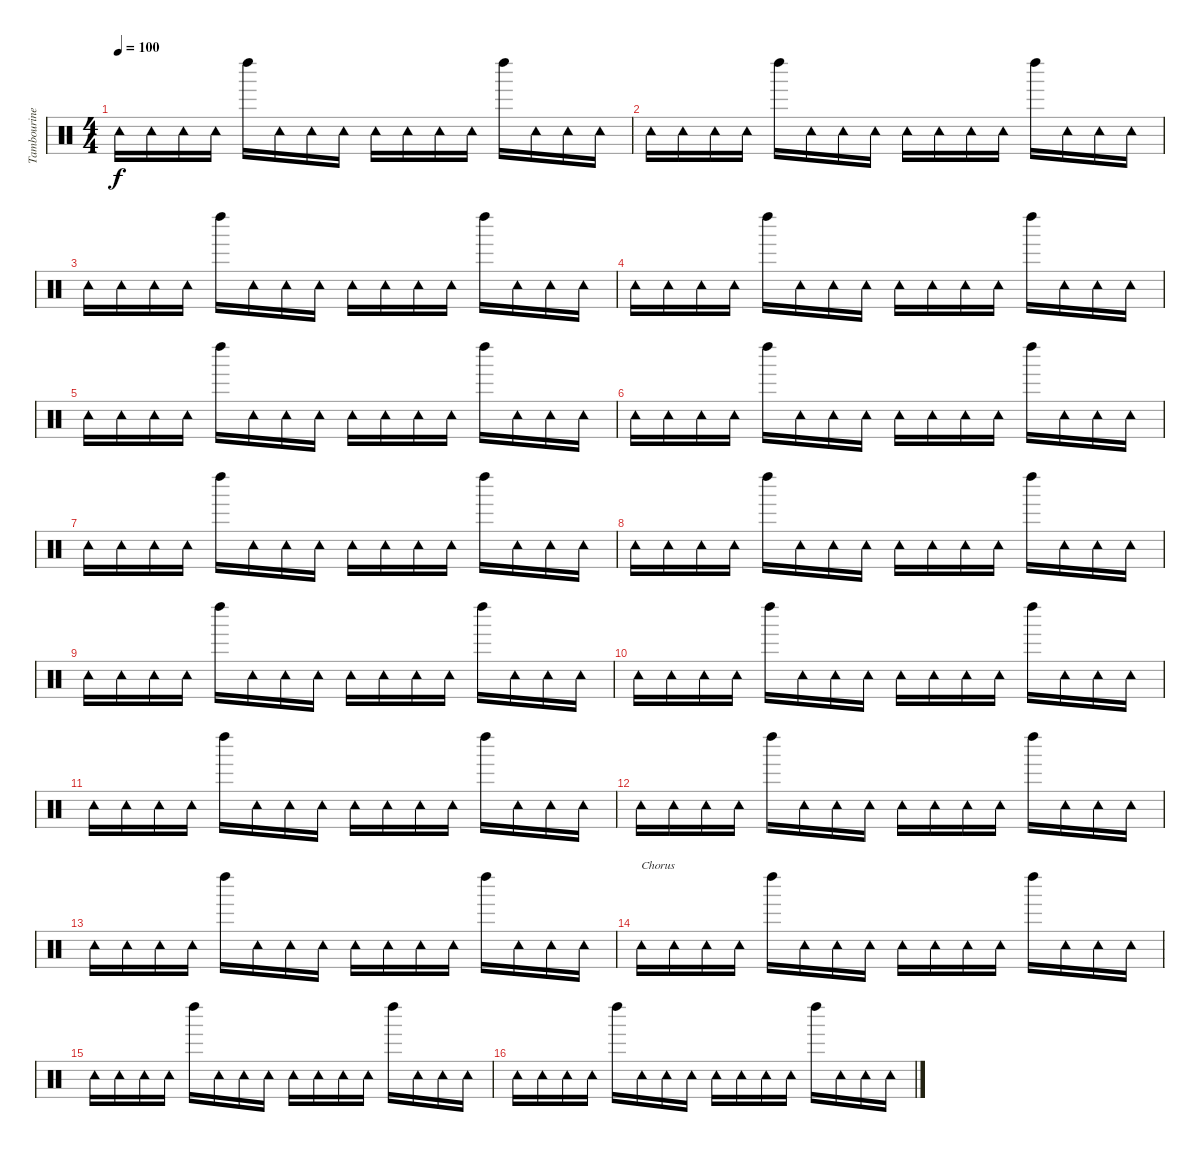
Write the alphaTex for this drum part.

\track ("Tambourine(Alan)" "Tambourine") {instrument percussion}
\staff {score}
\articulation defaults
\ts (4 4)
\tempo 100
\clef neutral
\ks c "Tambourine (hit)".16{dy f} "Tambourine (hit)".16 "Tambourine (hit)".16 "Tambourine (hit)".16 "Left Maraca (hit)".16 "Tambourine (hit)".16 "Tambourine (hit)".16 "Tambourine (hit)".16 "Tambourine (hit)".16 "Tambourine (hit)".16 "Tambourine (hit)".16 "Tambourine (hit)".16 "Left Maraca (hit)".16 "Tambourine (hit)".16 "Tambourine (hit)".16 "Tambourine (hit)".16
|
"Tambourine (hit)".16 "Tambourine (hit)".16 "Tambourine (hit)".16 "Tambourine (hit)".16 "Left Maraca (hit)".16 "Tambourine (hit)".16 "Tambourine (hit)".16 "Tambourine (hit)".16 "Tambourine (hit)".16 "Tambourine (hit)".16 "Tambourine (hit)".16 "Tambourine (hit)".16 "Left Maraca (hit)".16 "Tambourine (hit)".16 "Tambourine (hit)".16 "Tambourine (hit)".16 |
"Tambourine (hit)".16 "Tambourine (hit)".16 "Tambourine (hit)".16 "Tambourine (hit)".16 "Left Maraca (hit)".16 "Tambourine (hit)".16 "Tambourine (hit)".16 "Tambourine (hit)".16 "Tambourine (hit)".16 "Tambourine (hit)".16 "Tambourine (hit)".16 "Tambourine (hit)".16 "Left Maraca (hit)".16 "Tambourine (hit)".16 "Tambourine (hit)".16 "Tambourine (hit)".16 |
"Tambourine (hit)".16 "Tambourine (hit)".16 "Tambourine (hit)".16 "Tambourine (hit)".16 "Left Maraca (hit)".16 "Tambourine (hit)".16 "Tambourine (hit)".16 "Tambourine (hit)".16 "Tambourine (hit)".16 "Tambourine (hit)".16 "Tambourine (hit)".16 "Tambourine (hit)".16 "Left Maraca (hit)".16 "Tambourine (hit)".16 "Tambourine (hit)".16 "Tambourine (hit)".16 |
"Tambourine (hit)".16 "Tambourine (hit)".16 "Tambourine (hit)".16 "Tambourine (hit)".16 "Left Maraca (hit)".16 "Tambourine (hit)".16 "Tambourine (hit)".16 "Tambourine (hit)".16 "Tambourine (hit)".16 "Tambourine (hit)".16 "Tambourine (hit)".16 "Tambourine (hit)".16 "Left Maraca (hit)".16 "Tambourine (hit)".16 "Tambourine (hit)".16 "Tambourine (hit)".16 |
"Tambourine (hit)".16 "Tambourine (hit)".16 "Tambourine (hit)".16 "Tambourine (hit)".16 "Left Maraca (hit)".16 "Tambourine (hit)".16 "Tambourine (hit)".16 "Tambourine (hit)".16 "Tambourine (hit)".16 "Tambourine (hit)".16 "Tambourine (hit)".16 "Tambourine (hit)".16 "Left Maraca (hit)".16 "Tambourine (hit)".16 "Tambourine (hit)".16 "Tambourine (hit)".16 |
"Tambourine (hit)".16 "Tambourine (hit)".16 "Tambourine (hit)".16 "Tambourine (hit)".16 "Left Maraca (hit)".16 "Tambourine (hit)".16 "Tambourine (hit)".16 "Tambourine (hit)".16 "Tambourine (hit)".16 "Tambourine (hit)".16 "Tambourine (hit)".16 "Tambourine (hit)".16 "Left Maraca (hit)".16 "Tambourine (hit)".16 "Tambourine (hit)".16 "Tambourine (hit)".16 |
"Tambourine (hit)".16 "Tambourine (hit)".16 "Tambourine (hit)".16 "Tambourine (hit)".16 "Left Maraca (hit)".16 "Tambourine (hit)".16 "Tambourine (hit)".16 "Tambourine (hit)".16 "Tambourine (hit)".16 "Tambourine (hit)".16 "Tambourine (hit)".16 "Tambourine (hit)".16 "Left Maraca (hit)".16 "Tambourine (hit)".16 "Tambourine (hit)".16 "Tambourine (hit)".16 |
"Tambourine (hit)".16 "Tambourine (hit)".16 "Tambourine (hit)".16 "Tambourine (hit)".16 "Left Maraca (hit)".16 "Tambourine (hit)".16 "Tambourine (hit)".16 "Tambourine (hit)".16 "Tambourine (hit)".16 "Tambourine (hit)".16 "Tambourine (hit)".16 "Tambourine (hit)".16 "Left Maraca (hit)".16 "Tambourine (hit)".16 "Tambourine (hit)".16 "Tambourine (hit)".16 |
"Tambourine (hit)".16 "Tambourine (hit)".16 "Tambourine (hit)".16 "Tambourine (hit)".16 "Left Maraca (hit)".16 "Tambourine (hit)".16 "Tambourine (hit)".16 "Tambourine (hit)".16 "Tambourine (hit)".16 "Tambourine (hit)".16 "Tambourine (hit)".16 "Tambourine (hit)".16 "Left Maraca (hit)".16 "Tambourine (hit)".16 "Tambourine (hit)".16 "Tambourine (hit)".16 |
"Tambourine (hit)".16 "Tambourine (hit)".16 "Tambourine (hit)".16 "Tambourine (hit)".16 "Left Maraca (hit)".16 "Tambourine (hit)".16 "Tambourine (hit)".16 "Tambourine (hit)".16 "Tambourine (hit)".16 "Tambourine (hit)".16 "Tambourine (hit)".16 "Tambourine (hit)".16 "Left Maraca (hit)".16 "Tambourine (hit)".16 "Tambourine (hit)".16 "Tambourine (hit)".16 |
"Tambourine (hit)".16 "Tambourine (hit)".16 "Tambourine (hit)".16 "Tambourine (hit)".16 "Left Maraca (hit)".16 "Tambourine (hit)".16 "Tambourine (hit)".16 "Tambourine (hit)".16 "Tambourine (hit)".16 "Tambourine (hit)".16 "Tambourine (hit)".16 "Tambourine (hit)".16 "Left Maraca (hit)".16 "Tambourine (hit)".16 "Tambourine (hit)".16 "Tambourine (hit)".16 |
"Tambourine (hit)".16 "Tambourine (hit)".16 "Tambourine (hit)".16 "Tambourine (hit)".16 "Left Maraca (hit)".16 "Tambourine (hit)".16 "Tambourine (hit)".16 "Tambourine (hit)".16 "Tambourine (hit)".16 "Tambourine (hit)".16 "Tambourine (hit)".16 "Tambourine (hit)".16 "Left Maraca (hit)".16 "Tambourine (hit)".16 "Tambourine (hit)".16 "Tambourine (hit)".16 |
"Tambourine (hit)".16{txt "Chorus"} "Tambourine (hit)".16 "Tambourine (hit)".16 "Tambourine (hit)".16 "Left Maraca (hit)".16 "Tambourine (hit)".16 "Tambourine (hit)".16 "Tambourine (hit)".16 "Tambourine (hit)".16 "Tambourine (hit)".16 "Tambourine (hit)".16 "Tambourine (hit)".16 "Left Maraca (hit)".16 "Tambourine (hit)".16 "Tambourine (hit)".16 "Tambourine (hit)".16 |
"Tambourine (hit)".16 "Tambourine (hit)".16 "Tambourine (hit)".16 "Tambourine (hit)".16 "Left Maraca (hit)".16 "Tambourine (hit)".16 "Tambourine (hit)".16 "Tambourine (hit)".16 "Tambourine (hit)".16 "Tambourine (hit)".16 "Tambourine (hit)".16 "Tambourine (hit)".16 "Left Maraca (hit)".16 "Tambourine (hit)".16 "Tambourine (hit)".16 "Tambourine (hit)".16 |
"Tambourine (hit)".16 "Tambourine (hit)".16 "Tambourine (hit)".16 "Tambourine (hit)".16 "Left Maraca (hit)".16 "Tambourine (hit)".16 "Tambourine (hit)".16 "Tambourine (hit)".16 "Tambourine (hit)".16 "Tambourine (hit)".16 "Tambourine (hit)".16 "Tambourine (hit)".16 "Left Maraca (hit)".16 "Tambourine (hit)".16 "Tambourine (hit)".16 "Tambourine (hit)".16
